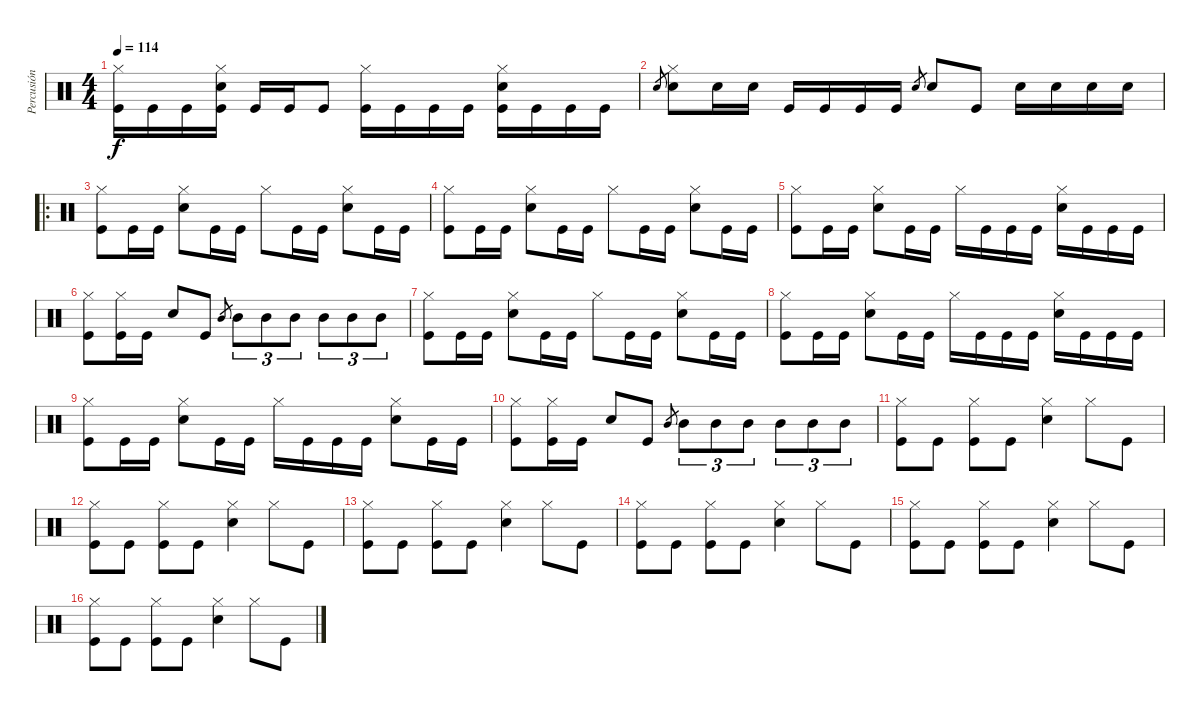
\track ("Percusión" "Percusión") {instrument percussion}
\staff {score}
\articulation defaults
\ts (4 4)
\tempo 114
\clef neutral
\ks c
("Hi-Hat (closed)" "Kick (hit)").16{dy f} "Kick (hit)".16 "Kick (hit)".16 ("Hi-Hat (closed)" "Snare (hit) 2" "Kick (hit)").16 "Kick (hit)".16 "Kick (hit)".16 "Kick (hit)".8 ("Hi-Hat (closed)" "Kick (hit)").16 "Kick (hit)".16 "Kick (hit)".16 "Kick (hit)".16 ("Hi-Hat (closed)" "Snare (hit) 2" "Kick (hit)").16 "Kick (hit)".16 "Kick (hit)".16 "Kick (hit)".16 |
"Snare (hit) 2".8{gr} ("Hi-Hat (closed)" "Snare (hit) 2").8 "Snare (hit) 2".16 "Snare (hit) 2".16 "Kick (hit)".16 "Kick (hit)".16 "Kick (hit)".16 "Kick (hit)".16 "Snare (hit) 2".8{gr} "Snare (hit) 2".8 "Kick (hit)".8 "Snare (hit) 2".16 "Snare (hit) 2".16 "Snare (hit) 2".16 "Snare (hit) 2".16 |
\ro
("Hi-Hat (closed)" "Kick (hit)").8 "Kick (hit)".16 "Kick (hit)".16 ("Hi-Hat (closed)" "Snare (hit) 2").8 "Kick (hit)".16 "Kick (hit)".16 "Hi-Hat (closed)".8 "Kick (hit)".16 "Kick (hit)".16 ("Hi-Hat (closed)" "Snare (hit) 2").8 "Kick (hit)".16 "Kick (hit)".16 |
("Hi-Hat (closed)" "Kick (hit)").8 "Kick (hit)".16 "Kick (hit)".16 ("Hi-Hat (closed)" "Snare (hit) 2").8 "Kick (hit)".16 "Kick (hit)".16 "Hi-Hat (closed)".8 "Kick (hit)".16 "Kick (hit)".16 ("Hi-Hat (closed)" "Snare (hit) 2").8 "Kick (hit)".16 "Kick (hit)".16 |
("Hi-Hat (closed)" "Kick (hit)").8 "Kick (hit)".16 "Kick (hit)".16 ("Hi-Hat (closed)" "Snare (hit) 2").8 "Kick (hit)".16 "Kick (hit)".16 "Hi-Hat (closed)".16 "Kick (hit)".16 "Kick (hit)".16 "Kick (hit)".16 ("Hi-Hat (closed)" "Snare (hit) 2").16 "Kick (hit)".16 "Kick (hit)".16 "Kick (hit)".16 |
("Hi-Hat (closed)" "Kick (hit)").8 ("Hi-Hat (closed)" "Kick (hit)").16 "Kick (hit)".16 "Snare (hit) 2".8 "Kick (hit)".8 "Mid Tom (hit)".8{gr} "Mid Tom (hit)".8{tu (3 2)} "Mid Tom (hit)".8{tu (3 2)} "Mid Tom (hit)".8{tu (3 2)} "Mid Tom (hit)".8{tu (3 2)} "Mid Tom (hit)".8{tu (3 2)} "Mid Tom (hit)".8{tu (3 2)} |
("Hi-Hat (closed)" "Kick (hit)").8 "Kick (hit)".16 "Kick (hit)".16 ("Hi-Hat (closed)" "Snare (hit) 2").8 "Kick (hit)".16 "Kick (hit)".16 "Hi-Hat (closed)".8 "Kick (hit)".16 "Kick (hit)".16 ("Hi-Hat (closed)" "Snare (hit) 2").8 "Kick (hit)".16 "Kick (hit)".16 |
("Hi-Hat (closed)" "Kick (hit)").8 "Kick (hit)".16 "Kick (hit)".16 ("Hi-Hat (closed)" "Snare (hit) 2").8 "Kick (hit)".16 "Kick (hit)".16 "Hi-Hat (closed)".16 "Kick (hit)".16 "Kick (hit)".16 "Kick (hit)".16 ("Hi-Hat (closed)" "Snare (hit) 2").16 "Kick (hit)".16 "Kick (hit)".16 "Kick (hit)".16 |
("Hi-Hat (closed)" "Kick (hit)").8 "Kick (hit)".16 "Kick (hit)".16 ("Hi-Hat (closed)" "Snare (hit) 2").8 "Kick (hit)".16 "Kick (hit)".16 "Hi-Hat (closed)".16 "Kick (hit)".16 "Kick (hit)".16 "Kick (hit)".16 ("Hi-Hat (closed)" "Snare (hit) 2").8 "Kick (hit)".16 "Kick (hit)".16 |
("Hi-Hat (closed)" "Kick (hit)").8 ("Hi-Hat (closed)" "Kick (hit)").16 "Kick (hit)".16 "Snare (hit) 2".8 "Kick (hit)".8 "Mid Tom (hit)".8{gr} "Mid Tom (hit)".8{tu (3 2)} "Mid Tom (hit)".8{tu (3 2)} "Mid Tom (hit)".8{tu (3 2)} "Mid Tom (hit)".8{tu (3 2)} "Mid Tom (hit)".8{tu (3 2)} "Mid Tom (hit)".8{tu (3 2)} |
("Hi-Hat (closed)" "Kick (hit)").8 "Kick (hit)".8 ("Hi-Hat (closed)" "Kick (hit)").8 "Kick (hit)".8 ("Hi-Hat (closed)" "Snare (hit) 2").4 "Hi-Hat (closed)".8 "Kick (hit)".8 |
("Hi-Hat (closed)" "Kick (hit)").8 "Kick (hit)".8 ("Hi-Hat (closed)" "Kick (hit)").8 "Kick (hit)".8 ("Hi-Hat (closed)" "Snare (hit) 2").4 "Hi-Hat (closed)".8 "Kick (hit)".8 |
("Hi-Hat (closed)" "Kick (hit)").8 "Kick (hit)".8 ("Hi-Hat (closed)" "Kick (hit)").8 "Kick (hit)".8 ("Hi-Hat (closed)" "Snare (hit) 2").4 "Hi-Hat (closed)".8 "Kick (hit)".8 |
("Hi-Hat (closed)" "Kick (hit)").8 "Kick (hit)".8 ("Hi-Hat (closed)" "Kick (hit)").8 "Kick (hit)".8 ("Hi-Hat (closed)" "Snare (hit) 2").4 "Hi-Hat (closed)".8 "Kick (hit)".8 |
("Hi-Hat (closed)" "Kick (hit)").8 "Kick (hit)".8 ("Hi-Hat (closed)" "Kick (hit)").8 "Kick (hit)".8 ("Hi-Hat (closed)" "Snare (hit) 2").4 "Hi-Hat (closed)".8 "Kick (hit)".8 |
("Hi-Hat (closed)" "Kick (hit)").8 "Kick (hit)".8 ("Hi-Hat (closed)" "Kick (hit)").8 "Kick (hit)".8 ("Hi-Hat (closed)" "Snare (hit) 2").4 "Hi-Hat (closed)".8 "Kick (hit)".8
